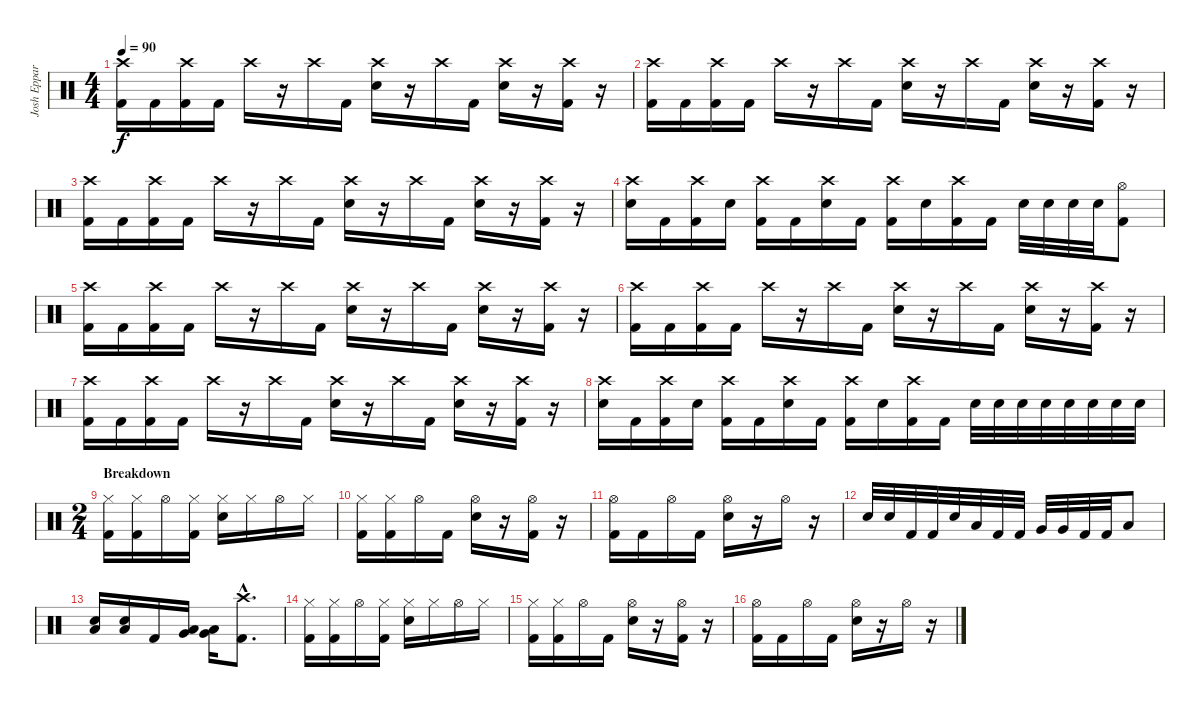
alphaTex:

\track ("Josh Eppard" "Josh Eppar") {instrument percussion}
\staff {score}
\articulation defaults
\ts (4 4)
\tempo 90
\clef neutral
\ks c
("Crash high (hit)" "Kick (hit) 2").16{dy f} "Kick (hit) 2".16 ("Crash high (hit)" "Kick (hit) 2").16 "Kick (hit) 2".16 "Crash high (hit)".16 r.16 "Crash high (hit)".16 "Kick (hit) 2".16 ("Crash high (hit)" "Electric Snare (hit)").16 r.16 "Crash high (hit)".16 "Kick (hit) 2".16 ("Crash high (hit)" "Electric Snare (hit)").16 r.16 ("Crash high (hit)" "Kick (hit) 2").16 r.16 |
("Crash high (hit)" "Kick (hit) 2").16 "Kick (hit) 2".16 ("Crash high (hit)" "Kick (hit) 2").16 "Kick (hit) 2".16 "Crash high (hit)".16 r.16 "Crash high (hit)".16 "Kick (hit) 2".16 ("Crash high (hit)" "Electric Snare (hit)").16 r.16 "Crash high (hit)".16 "Kick (hit) 2".16 ("Crash high (hit)" "Electric Snare (hit)").16 r.16 ("Crash high (hit)" "Kick (hit) 2").16 r.16 |
("Crash high (hit)" "Kick (hit) 2").16 "Kick (hit) 2".16 ("Crash high (hit)" "Kick (hit) 2").16 "Kick (hit) 2".16 "Crash high (hit)".16 r.16 "Crash high (hit)".16 "Kick (hit) 2".16 ("Crash high (hit)" "Electric Snare (hit)").16 r.16 "Crash high (hit)".16 "Kick (hit) 2".16 ("Crash high (hit)" "Electric Snare (hit)").16 r.16 ("Crash high (hit)" "Kick (hit) 2").16 r.16 |
("Crash high (hit)" "Electric Snare (hit)").16 "Kick (hit) 2".16 ("Crash high (hit)" "Kick (hit) 2").16 "Electric Snare (hit)".16 ("Crash high (hit)" "Kick (hit) 2").16 "Kick (hit) 2".16 ("Crash high (hit)" "Electric Snare (hit)").16 "Kick (hit) 2".16 ("Crash high (hit)" "Kick (hit) 2").16 "Electric Snare (hit)".16 ("Crash high (hit)" "Kick (hit) 2").16 "Kick (hit) 2".16 "Electric Snare (hit)".32 "Electric Snare (hit)".32 "Electric Snare (hit)".32 "Electric Snare (hit)".32 ("Hi-Hat (open)" "Kick (hit) 2").8 |
("Crash high (hit)" "Kick (hit) 2").16 "Kick (hit) 2".16 ("Crash high (hit)" "Kick (hit) 2").16 "Kick (hit) 2".16 "Crash high (hit)".16 r.16 "Crash high (hit)".16 "Kick (hit) 2".16 ("Crash high (hit)" "Electric Snare (hit)").16 r.16 "Crash high (hit)".16 "Kick (hit) 2".16 ("Crash high (hit)" "Electric Snare (hit)").16 r.16 ("Crash high (hit)" "Kick (hit) 2").16 r.16 |
("Crash high (hit)" "Kick (hit) 2").16 "Kick (hit) 2".16 ("Crash high (hit)" "Kick (hit) 2").16 "Kick (hit) 2".16 "Crash high (hit)".16 r.16 "Crash high (hit)".16 "Kick (hit) 2".16 ("Crash high (hit)" "Electric Snare (hit)").16 r.16 "Crash high (hit)".16 "Kick (hit) 2".16 ("Crash high (hit)" "Electric Snare (hit)").16 r.16 ("Crash high (hit)" "Kick (hit) 2").16 r.16 |
("Crash high (hit)" "Kick (hit) 2").16 "Kick (hit) 2".16 ("Crash high (hit)" "Kick (hit) 2").16 "Kick (hit) 2".16 "Crash high (hit)".16 r.16 "Crash high (hit)".16 "Kick (hit) 2".16 ("Crash high (hit)" "Electric Snare (hit)").16 r.16 "Crash high (hit)".16 "Kick (hit) 2".16 ("Crash high (hit)" "Electric Snare (hit)").16 r.16 ("Crash high (hit)" "Kick (hit) 2").16 r.16 |
("Crash high (hit)" "Electric Snare (hit)").16 "Kick (hit) 2".16 ("Crash high (hit)" "Kick (hit) 2").16 "Electric Snare (hit)".16 ("Crash high (hit)" "Kick (hit) 2").16 "Kick (hit) 2".16 ("Crash high (hit)" "Electric Snare (hit)").16 "Kick (hit) 2".16 ("Crash high (hit)" "Kick (hit) 2").16 "Electric Snare (hit)".16 ("Crash high (hit)" "Kick (hit) 2").16 "Kick (hit) 2".16 "Electric Snare (hit)".32 "Electric Snare (hit)".32 "Electric Snare (hit)".32 "Electric Snare (hit)".32 "Electric Snare (hit)".32 "Electric Snare (hit)".32 "Electric Snare (hit)".32 "Electric Snare (hit)".32 |
\ts (2 4)
\section ("" "Breakdown")
("Hi-Hat (closed)" "Kick (hit) 2").16 ("Hi-Hat (closed)" "Kick (hit) 2").16 "Hi-Hat (open)".16 ("Hi-Hat (closed)" "Kick (hit) 2").16 ("Hi-Hat (closed)" "Electric Snare (hit)").16 "Hi-Hat (closed)".16 "Hi-Hat (open)".16 "Hi-Hat (closed)".16 |
("Hi-Hat (closed)" "Kick (hit) 2").16 ("Hi-Hat (closed)" "Kick (hit) 2").16 "Hi-Hat (open)".16 "Kick (hit) 2".16 ("Hi-Hat (open)" "Electric Snare (hit)").16 r.16 ("Hi-Hat (open)" "Kick (hit) 2").16 r.16 |
("Hi-Hat (open)" "Kick (hit) 2").16 "Kick (hit) 2".16 "Hi-Hat (open)".16 "Kick (hit) 2".16 ("Hi-Hat (open)" "Electric Snare (hit)").16 r.16 "Hi-Hat (open)".16 r.16 |
"Electric Snare (hit)".32 "Electric Snare (hit)".32 "Kick (hit) 2".32 "Kick (hit) 2".32 "Electric Snare (hit)".32 "Low Tom (hit)".32 "Kick (hit) 2".32 "Kick (hit) 2".32 "Very Low Tom (hit)".32 "Very Low Tom (hit)".32 "Kick (hit) 2".32 "Kick (hit) 2".32 "Low Floor Tom (hit)".8 |
("Low Floor Tom (hit)" "Electric Snare (hit)").16 ("Low Floor Tom (hit)" "Electric Snare (hit)").16 "Kick (hit) 2".16 ("Very Low Tom (hit)" "Low Floor Tom (hit)").16 ("Very Low Tom (hit)" "Low Floor Tom (hit)").16 ("Crash high (hit)"{hac} "Kick (hit) 2"{hac}).8{d} |
("Hi-Hat (closed)" "Kick (hit) 2").16 ("Hi-Hat (closed)" "Kick (hit) 2").16 "Hi-Hat (open)".16 ("Hi-Hat (closed)" "Kick (hit) 2").16 ("Hi-Hat (closed)" "Electric Snare (hit)").16 "Hi-Hat (closed)".16 "Hi-Hat (open)".16 "Hi-Hat (closed)".16 |
("Hi-Hat (closed)" "Kick (hit) 2").16 ("Hi-Hat (closed)" "Kick (hit) 2").16 "Hi-Hat (open)".16 "Kick (hit) 2".16 ("Hi-Hat (open)" "Electric Snare (hit)").16 r.16 ("Hi-Hat (open)" "Kick (hit) 2").16 r.16 |
("Hi-Hat (open)" "Kick (hit) 2").16 "Kick (hit) 2".16 "Hi-Hat (open)".16 "Kick (hit) 2".16 ("Hi-Hat (open)" "Electric Snare (hit)").16 r.16 "Hi-Hat (open)".16 r.16
